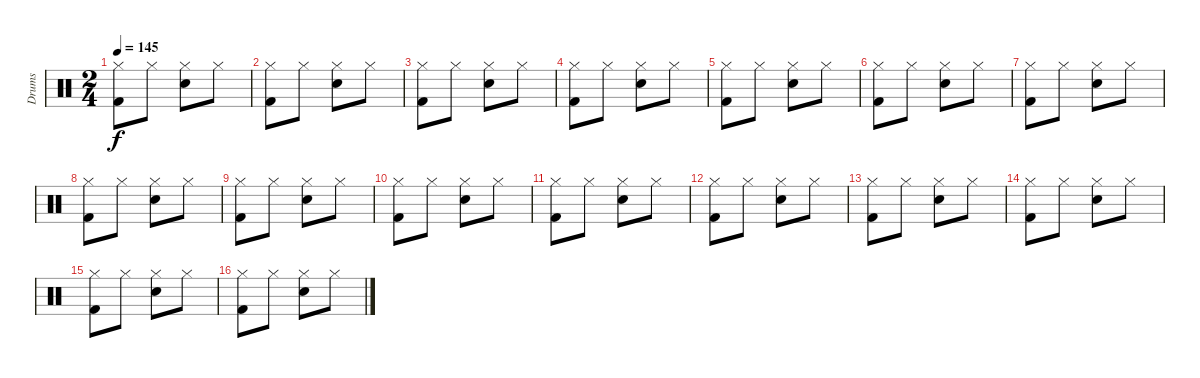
\track ("Drums" "Drums") {instrument percussion}
\staff {score}
\articulation defaults
\ts (2 4)
\tempo 145
\clef neutral
\ks c
("Hi-Hat (closed)" "Kick (hit) 2").8{dy f} "Hi-Hat (closed)".8 ("Hi-Hat (closed)" "Snare (hit) 2").8 "Hi-Hat (closed)".8 |
("Hi-Hat (closed)" "Kick (hit) 2").8 "Hi-Hat (closed)".8 ("Hi-Hat (closed)" "Snare (hit) 2").8 "Hi-Hat (closed)".8 |
("Hi-Hat (closed)" "Kick (hit) 2").8 "Hi-Hat (closed)".8 ("Hi-Hat (closed)" "Snare (hit) 2").8 "Hi-Hat (closed)".8 |
("Hi-Hat (closed)" "Kick (hit) 2").8 "Hi-Hat (closed)".8 ("Hi-Hat (closed)" "Snare (hit) 2").8 "Hi-Hat (closed)".8 |
("Hi-Hat (closed)" "Kick (hit) 2").8 "Hi-Hat (closed)".8 ("Hi-Hat (closed)" "Snare (hit) 2").8 "Hi-Hat (closed)".8 |
("Hi-Hat (closed)" "Kick (hit) 2").8 "Hi-Hat (closed)".8 ("Hi-Hat (closed)" "Snare (hit) 2").8 "Hi-Hat (closed)".8 |
("Hi-Hat (closed)" "Kick (hit) 2").8 "Hi-Hat (closed)".8 ("Hi-Hat (closed)" "Snare (hit) 2").8 "Hi-Hat (closed)".8 |
("Hi-Hat (closed)" "Kick (hit) 2").8 "Hi-Hat (closed)".8 ("Hi-Hat (closed)" "Snare (hit) 2").8 "Hi-Hat (closed)".8 |
("Hi-Hat (closed)" "Kick (hit) 2").8 "Hi-Hat (closed)".8 ("Hi-Hat (closed)" "Snare (hit) 2").8 "Hi-Hat (closed)".8 |
("Hi-Hat (closed)" "Kick (hit) 2").8 "Hi-Hat (closed)".8 ("Hi-Hat (closed)" "Snare (hit) 2").8 "Hi-Hat (closed)".8 |
("Hi-Hat (closed)" "Kick (hit) 2").8 "Hi-Hat (closed)".8 ("Hi-Hat (closed)" "Snare (hit) 2").8 "Hi-Hat (closed)".8 |
("Hi-Hat (closed)" "Kick (hit) 2").8 "Hi-Hat (closed)".8 ("Hi-Hat (closed)" "Snare (hit) 2").8 "Hi-Hat (closed)".8 |
("Hi-Hat (closed)" "Kick (hit) 2").8 "Hi-Hat (closed)".8 ("Hi-Hat (closed)" "Snare (hit) 2").8 "Hi-Hat (closed)".8 |
("Hi-Hat (closed)" "Kick (hit) 2").8 "Hi-Hat (closed)".8 ("Hi-Hat (closed)" "Snare (hit) 2").8 "Hi-Hat (closed)".8 |
("Hi-Hat (closed)" "Kick (hit) 2").8 "Hi-Hat (closed)".8 ("Hi-Hat (closed)" "Snare (hit) 2").8 "Hi-Hat (closed)".8 |
("Hi-Hat (closed)" "Kick (hit) 2").8 "Hi-Hat (closed)".8 ("Hi-Hat (closed)" "Snare (hit) 2").8 "Hi-Hat (closed)".8
